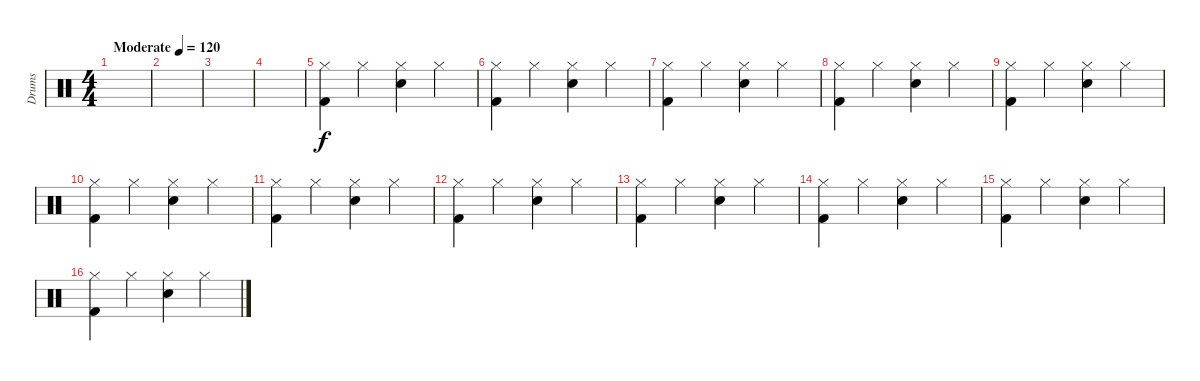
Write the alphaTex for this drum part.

\track ("Drums" "Drums") {instrument percussion}
\staff {score}
\articulation defaults
\ts (4 4)
\tempo (120 "Moderate")
\clef neutral
\ks c
|
|
|
|
("Hi-Hat (closed)" "Kick (hit) 2").4 "Hi-Hat (closed)".4 ("Hi-Hat (closed)" "Electric Snare (hit)").4 "Hi-Hat (closed)".4 |
("Hi-Hat (closed)" "Kick (hit) 2").4 "Hi-Hat (closed)".4 ("Hi-Hat (closed)" "Electric Snare (hit)").4 "Hi-Hat (closed)".4 |
("Hi-Hat (closed)" "Kick (hit) 2").4 "Hi-Hat (closed)".4 ("Hi-Hat (closed)" "Electric Snare (hit)").4 "Hi-Hat (closed)".4 |
("Hi-Hat (closed)" "Kick (hit) 2").4 "Hi-Hat (closed)".4 ("Hi-Hat (closed)" "Electric Snare (hit)").4 "Hi-Hat (closed)".4 |
("Hi-Hat (closed)" "Kick (hit) 2").4 "Hi-Hat (closed)".4 ("Hi-Hat (closed)" "Electric Snare (hit)").4 "Hi-Hat (closed)".4 |
("Hi-Hat (closed)" "Kick (hit) 2").4 "Hi-Hat (closed)".4 ("Hi-Hat (closed)" "Electric Snare (hit)").4 "Hi-Hat (closed)".4 |
("Hi-Hat (closed)" "Kick (hit) 2").4 "Hi-Hat (closed)".4 ("Hi-Hat (closed)" "Electric Snare (hit)").4 "Hi-Hat (closed)".4 |
("Hi-Hat (closed)" "Kick (hit) 2").4 "Hi-Hat (closed)".4 ("Hi-Hat (closed)" "Electric Snare (hit)").4 "Hi-Hat (closed)".4 |
("Hi-Hat (closed)" "Kick (hit) 2").4 "Hi-Hat (closed)".4 ("Hi-Hat (closed)" "Electric Snare (hit)").4 "Hi-Hat (closed)".4 |
("Hi-Hat (closed)" "Kick (hit) 2").4 "Hi-Hat (closed)".4 ("Hi-Hat (closed)" "Electric Snare (hit)").4 "Hi-Hat (closed)".4 |
("Hi-Hat (closed)" "Kick (hit) 2").4 "Hi-Hat (closed)".4 ("Hi-Hat (closed)" "Electric Snare (hit)").4 "Hi-Hat (closed)".4 |
("Hi-Hat (closed)" "Kick (hit) 2").4 "Hi-Hat (closed)".4 ("Hi-Hat (closed)" "Electric Snare (hit)").4 "Hi-Hat (closed)".4
